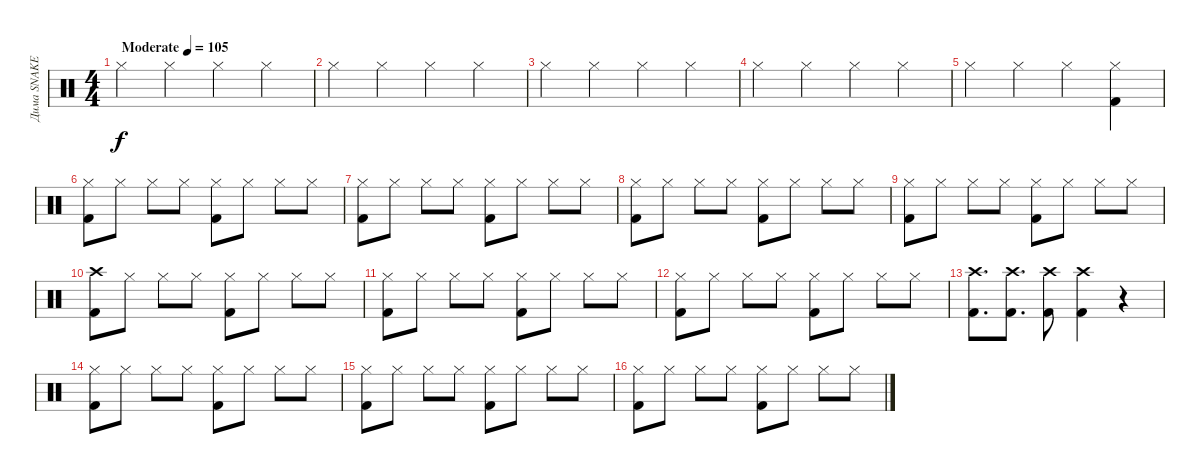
\track ("Дима SNAKE" "Дима SNAKE") {instrument percussion}
\staff {score}
\articulation defaults
\ts (4 4)
\tempo (105 "Moderate")
\clef neutral
\ks c "Hi-Hat (closed)".4{dy f} "Hi-Hat (closed)".4 "Hi-Hat (closed)".4 "Hi-Hat (closed)".4
|
"Hi-Hat (closed)".4 "Hi-Hat (closed)".4 "Hi-Hat (closed)".4 "Hi-Hat (closed)".4 |
"Hi-Hat (closed)".4 "Hi-Hat (closed)".4 "Hi-Hat (closed)".4 "Hi-Hat (closed)".4 |
"Hi-Hat (closed)".4 "Hi-Hat (closed)".4 "Hi-Hat (closed)".4 "Hi-Hat (closed)".4 |
"Hi-Hat (closed)".4 "Hi-Hat (closed)".4 "Hi-Hat (closed)".4 ("Hi-Hat (closed)" "Kick (hit) 2").4 |
("Hi-Hat (closed)" "Kick (hit) 2").8 "Hi-Hat (closed)".8 "Hi-Hat (closed)".8 "Hi-Hat (closed)".8 ("Hi-Hat (closed)" "Kick (hit) 2").8 "Hi-Hat (closed)".8 "Hi-Hat (closed)".8 "Hi-Hat (closed)".8 |
("Hi-Hat (closed)" "Kick (hit) 2").8 "Hi-Hat (closed)".8 "Hi-Hat (closed)".8 "Hi-Hat (closed)".8 ("Hi-Hat (closed)" "Kick (hit) 2").8 "Hi-Hat (closed)".8 "Hi-Hat (closed)".8 "Hi-Hat (closed)".8 |
("Hi-Hat (closed)" "Kick (hit) 2").8 "Hi-Hat (closed)".8 "Hi-Hat (closed)".8 "Hi-Hat (closed)".8 ("Hi-Hat (closed)" "Kick (hit) 2").8 "Hi-Hat (closed)".8 "Hi-Hat (closed)".8 "Hi-Hat (closed)".8 |
("Hi-Hat (closed)" "Kick (hit) 2").8 "Hi-Hat (closed)".8 "Hi-Hat (closed)".8 "Hi-Hat (closed)".8 ("Hi-Hat (closed)" "Kick (hit) 2").8 "Hi-Hat (closed)".8 "Hi-Hat (closed)".8 "Hi-Hat (closed)".8 |
("Crash high (hit)" "Kick (hit) 2").8 "Hi-Hat (closed)".8 "Hi-Hat (closed)".8 "Hi-Hat (closed)".8 ("Hi-Hat (closed)" "Kick (hit) 2").8 "Hi-Hat (closed)".8 "Hi-Hat (closed)".8 "Hi-Hat (closed)".8 |
("Hi-Hat (closed)" "Kick (hit) 2").8 "Hi-Hat (closed)".8 "Hi-Hat (closed)".8 "Hi-Hat (closed)".8 ("Hi-Hat (closed)" "Kick (hit) 2").8 "Hi-Hat (closed)".8 "Hi-Hat (closed)".8 "Hi-Hat (closed)".8 |
("Hi-Hat (closed)" "Kick (hit) 2").8 "Hi-Hat (closed)".8 "Hi-Hat (closed)".8 "Hi-Hat (closed)".8 ("Hi-Hat (closed)" "Kick (hit) 2").8 "Hi-Hat (closed)".8 "Hi-Hat (closed)".8 "Hi-Hat (closed)".8 |
("Crash high (hit)" "Kick (hit) 2").8{d} ("Crash high (hit)" "Kick (hit) 2").8{d} ("Crash high (hit)" "Kick (hit) 2").8 ("Crash high (hit)" "Kick (hit) 2").4 r.4 |
("Hi-Hat (closed)" "Kick (hit) 2").8 "Hi-Hat (closed)".8 "Hi-Hat (closed)".8 "Hi-Hat (closed)".8 ("Hi-Hat (closed)" "Kick (hit) 2").8 "Hi-Hat (closed)".8 "Hi-Hat (closed)".8 "Hi-Hat (closed)".8 |
("Hi-Hat (closed)" "Kick (hit) 2").8 "Hi-Hat (closed)".8 "Hi-Hat (closed)".8 "Hi-Hat (closed)".8 ("Hi-Hat (closed)" "Kick (hit) 2").8 "Hi-Hat (closed)".8 "Hi-Hat (closed)".8 "Hi-Hat (closed)".8 |
("Hi-Hat (closed)" "Kick (hit) 2").8 "Hi-Hat (closed)".8 "Hi-Hat (closed)".8 "Hi-Hat (closed)".8 ("Hi-Hat (closed)" "Kick (hit) 2").8 "Hi-Hat (closed)".8 "Hi-Hat (closed)".8 "Hi-Hat (closed)".8
